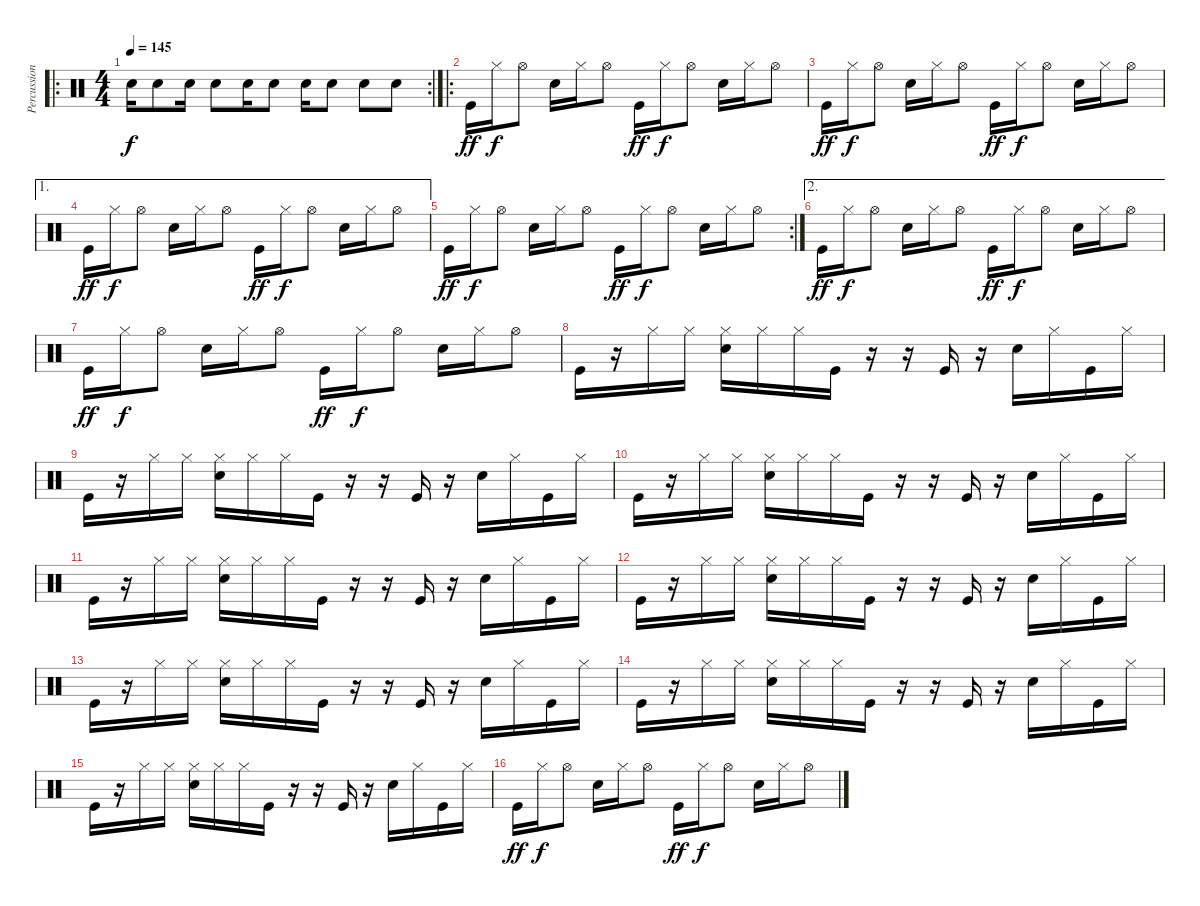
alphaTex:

\track ("Percussion" "Percussion") {instrument percussion}
\staff {score}
\articulation defaults
\ro
\rc 2
\ts (4 4)
\tempo 145
\clef neutral
\ks c "Snare (hit) 2".16{dy f} "Snare (hit) 2".8 "Snare (hit) 2".16 "Snare (hit) 2".8 "Snare (hit) 2".16 "Snare (hit) 2".8 "Snare (hit) 2".16 "Snare (hit) 2".8 "Snare (hit) 2".8 "Snare (hit) 2".8
|
\ro "Kick (hit)".16{dy ff} "Hi-Hat (closed)".16{dy f} "Hi-Hat (open)".8 "Electric Snare (hit)".16 "Hi-Hat (closed)".16 "Hi-Hat (open)".8 "Kick (hit)".16{dy ff} "Hi-Hat (closed)".16{dy f} "Hi-Hat (open)".8 "Electric Snare (hit)".16 "Hi-Hat (closed)".16 "Hi-Hat (open)".8
|
"Kick (hit)".16{dy ff} "Hi-Hat (closed)".16{dy f} "Hi-Hat (open)".8 "Electric Snare (hit)".16 "Hi-Hat (closed)".16 "Hi-Hat (open)".8 "Kick (hit)".16{dy ff} "Hi-Hat (closed)".16{dy f} "Hi-Hat (open)".8 "Electric Snare (hit)".16 "Hi-Hat (closed)".16 "Hi-Hat (open)".8 |
\ae 1 "Kick (hit)".16{dy ff} "Hi-Hat (closed)".16{dy f} "Hi-Hat (open)".8 "Electric Snare (hit)".16 "Hi-Hat (closed)".16 "Hi-Hat (open)".8 "Kick (hit)".16{dy ff} "Hi-Hat (closed)".16{dy f} "Hi-Hat (open)".8 "Electric Snare (hit)".16 "Hi-Hat (closed)".16 "Hi-Hat (open)".8
|
\rc 2 "Kick (hit)".16{dy ff} "Hi-Hat (closed)".16{dy f} "Hi-Hat (open)".8 "Electric Snare (hit)".16 "Hi-Hat (closed)".16 "Hi-Hat (open)".8 "Kick (hit)".16{dy ff} "Hi-Hat (closed)".16{dy f} "Hi-Hat (open)".8 "Electric Snare (hit)".16 "Hi-Hat (closed)".16 "Hi-Hat (open)".8
|
\ae 2 "Kick (hit)".16{dy ff} "Hi-Hat (closed)".16{dy f} "Hi-Hat (open)".8 "Electric Snare (hit)".16 "Hi-Hat (closed)".16 "Hi-Hat (open)".8 "Kick (hit)".16{dy ff} "Hi-Hat (closed)".16{dy f} "Hi-Hat (open)".8 "Electric Snare (hit)".16 "Hi-Hat (closed)".16 "Hi-Hat (open)".8
|
"Kick (hit)".16{dy ff} "Hi-Hat (closed)".16{dy f} "Hi-Hat (open)".8 "Electric Snare (hit)".16 "Hi-Hat (closed)".16 "Hi-Hat (open)".8 "Kick (hit)".16{dy ff} "Hi-Hat (closed)".16{dy f} "Hi-Hat (open)".8 "Electric Snare (hit)".16 "Hi-Hat (closed)".16 "Hi-Hat (open)".8 |
"Kick (hit)".16 r.16 "Hi-Hat (closed)".16 "Hi-Hat (closed)".16 ("Hi-Hat (closed)" "Snare (hit) 2").16 "Hi-Hat (closed)".16 "Hi-Hat (closed)".16 "Kick (hit)".16 r.16 r.16 "Kick (hit)".16 r.16 "Snare (hit) 2".16 "Hi-Hat (closed)".16 "Kick (hit)".16 "Hi-Hat (closed)".16 |
"Kick (hit)".16 r.16 "Hi-Hat (closed)".16 "Hi-Hat (closed)".16 ("Hi-Hat (closed)" "Snare (hit) 2").16 "Hi-Hat (closed)".16 "Hi-Hat (closed)".16 "Kick (hit)".16 r.16 r.16 "Kick (hit)".16 r.16 "Snare (hit) 2".16 "Hi-Hat (closed)".16 "Kick (hit)".16 "Hi-Hat (closed)".16 |
"Kick (hit)".16 r.16 "Hi-Hat (closed)".16 "Hi-Hat (closed)".16 ("Hi-Hat (closed)" "Snare (hit) 2").16 "Hi-Hat (closed)".16 "Hi-Hat (closed)".16 "Kick (hit)".16 r.16 r.16 "Kick (hit)".16 r.16 "Snare (hit) 2".16 "Hi-Hat (closed)".16 "Kick (hit)".16 "Hi-Hat (closed)".16 |
"Kick (hit)".16 r.16 "Hi-Hat (closed)".16 "Hi-Hat (closed)".16 ("Hi-Hat (closed)" "Snare (hit) 2").16 "Hi-Hat (closed)".16 "Hi-Hat (closed)".16 "Kick (hit)".16 r.16 r.16 "Kick (hit)".16 r.16 "Snare (hit) 2".16 "Hi-Hat (closed)".16 "Kick (hit)".16 "Hi-Hat (closed)".16 |
"Kick (hit)".16 r.16 "Hi-Hat (closed)".16 "Hi-Hat (closed)".16 ("Hi-Hat (closed)" "Snare (hit) 2").16 "Hi-Hat (closed)".16 "Hi-Hat (closed)".16 "Kick (hit)".16 r.16 r.16 "Kick (hit)".16 r.16 "Snare (hit) 2".16 "Hi-Hat (closed)".16 "Kick (hit)".16 "Hi-Hat (closed)".16 |
"Kick (hit)".16 r.16 "Hi-Hat (closed)".16 "Hi-Hat (closed)".16 ("Hi-Hat (closed)" "Snare (hit) 2").16 "Hi-Hat (closed)".16 "Hi-Hat (closed)".16 "Kick (hit)".16 r.16 r.16 "Kick (hit)".16 r.16 "Snare (hit) 2".16 "Hi-Hat (closed)".16 "Kick (hit)".16 "Hi-Hat (closed)".16 |
"Kick (hit)".16 r.16 "Hi-Hat (closed)".16 "Hi-Hat (closed)".16 ("Hi-Hat (closed)" "Snare (hit) 2").16 "Hi-Hat (closed)".16 "Hi-Hat (closed)".16 "Kick (hit)".16 r.16 r.16 "Kick (hit)".16 r.16 "Snare (hit) 2".16 "Hi-Hat (closed)".16 "Kick (hit)".16 "Hi-Hat (closed)".16 |
"Kick (hit)".16 r.16 "Hi-Hat (closed)".16 "Hi-Hat (closed)".16 ("Hi-Hat (closed)" "Snare (hit) 2").16 "Hi-Hat (closed)".16 "Hi-Hat (closed)".16 "Kick (hit)".16 r.16 r.16 "Kick (hit)".16 r.16 "Snare (hit) 2".16 "Hi-Hat (closed)".16 "Kick (hit)".16 "Hi-Hat (closed)".16 |
"Kick (hit)".16{dy ff} "Hi-Hat (closed)".16{dy f} "Hi-Hat (open)".8 "Electric Snare (hit)".16 "Hi-Hat (closed)".16 "Hi-Hat (open)".8 "Kick (hit)".16{dy ff} "Hi-Hat (closed)".16{dy f} "Hi-Hat (open)".8 "Electric Snare (hit)".16 "Hi-Hat (closed)".16 "Hi-Hat (open)".8
